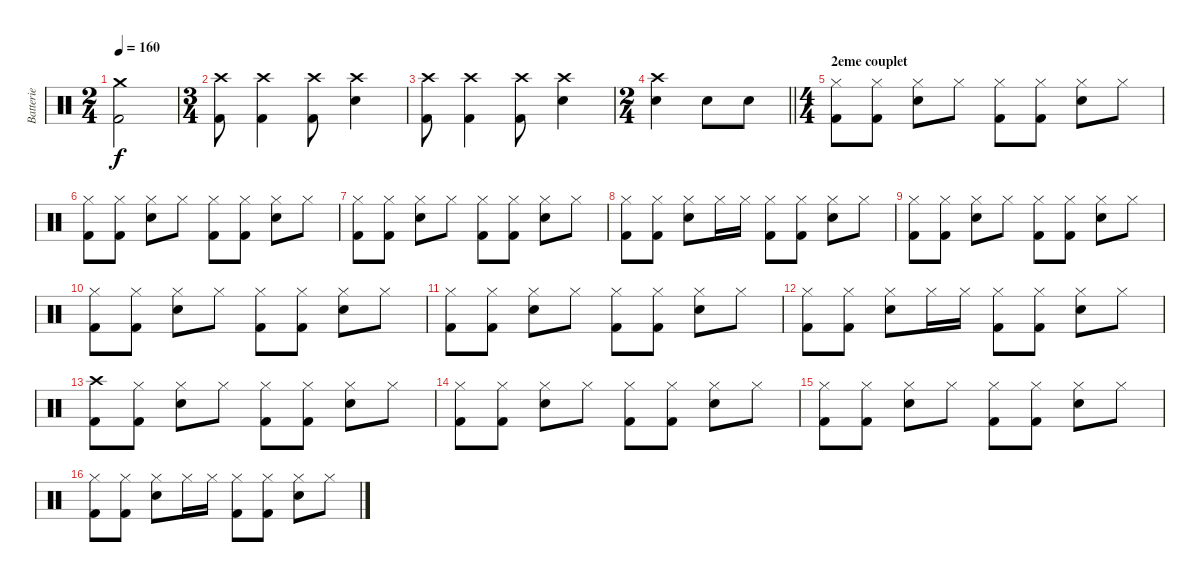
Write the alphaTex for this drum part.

\track ("Batterie" "Batterie") {instrument percussion}
\staff {score}
\articulation defaults
\ts (2 4)
\tempo 160
\clef neutral
\ks c
("Crash medium (hit)" "Kick (hit) 2").2{dy f} |
\ts (3 4)
("Crash high (hit)" "Kick (hit) 2").8 ("Crash high (hit)" "Kick (hit) 2").4 ("Crash high (hit)" "Kick (hit) 2").8 ("Crash high (hit)" "Snare (hit) 2").4 |
("Crash high (hit)" "Kick (hit) 2").8 ("Crash high (hit)" "Kick (hit) 2").4 ("Crash high (hit)" "Kick (hit) 2").8 ("Crash high (hit)" "Snare (hit) 2").4 |
\ts (2 4)
\barLineRight lightlight
("Crash high (hit)" "Snare (hit) 2").4 "Snare (hit) 2".8 "Snare (hit) 2".8 |
\ts (4 4)
\section ("" "2eme couplet")
("Hi-Hat (closed)" "Kick (hit) 2").8{volume 11} ("Hi-Hat (closed)" "Kick (hit) 2").8 ("Hi-Hat (closed)" "Electric Snare (hit)").8 "Hi-Hat (closed)".8 ("Hi-Hat (closed)" "Kick (hit) 2").8 ("Hi-Hat (closed)" "Kick (hit) 2").8 ("Hi-Hat (closed)" "Electric Snare (hit)").8 "Hi-Hat (closed)".8 |
("Hi-Hat (closed)" "Kick (hit) 2").8 ("Hi-Hat (closed)" "Kick (hit) 2").8 ("Hi-Hat (closed)" "Electric Snare (hit)").8 "Hi-Hat (closed)".8 ("Hi-Hat (closed)" "Kick (hit) 2").8 ("Hi-Hat (closed)" "Kick (hit) 2").8 ("Hi-Hat (closed)" "Electric Snare (hit)").8 "Hi-Hat (closed)".8 |
("Hi-Hat (closed)" "Kick (hit) 2").8 ("Hi-Hat (closed)" "Kick (hit) 2").8 ("Hi-Hat (closed)" "Electric Snare (hit)").8 "Hi-Hat (closed)".8 ("Hi-Hat (closed)" "Kick (hit) 2").8 ("Hi-Hat (closed)" "Kick (hit) 2").8 ("Hi-Hat (closed)" "Electric Snare (hit)").8 "Hi-Hat (closed)".8 |
("Hi-Hat (closed)" "Kick (hit) 2").8 ("Hi-Hat (closed)" "Kick (hit) 2").8 ("Hi-Hat (closed)" "Electric Snare (hit)").8 "Hi-Hat (closed)".16 "Hi-Hat (closed)".16 ("Hi-Hat (closed)" "Kick (hit) 2").8 ("Hi-Hat (closed)" "Kick (hit) 2").8 ("Hi-Hat (closed)" "Electric Snare (hit)").8 "Hi-Hat (closed)".8 |
("Hi-Hat (closed)" "Kick (hit) 2").8 ("Hi-Hat (closed)" "Kick (hit) 2").8 ("Hi-Hat (closed)" "Electric Snare (hit)").8 "Hi-Hat (closed)".8 ("Hi-Hat (closed)" "Kick (hit) 2").8 ("Hi-Hat (closed)" "Kick (hit) 2").8 ("Hi-Hat (closed)" "Electric Snare (hit)").8 "Hi-Hat (closed)".8 |
("Hi-Hat (closed)" "Kick (hit) 2").8 ("Hi-Hat (closed)" "Kick (hit) 2").8 ("Hi-Hat (closed)" "Electric Snare (hit)").8 "Hi-Hat (closed)".8 ("Hi-Hat (closed)" "Kick (hit) 2").8 ("Hi-Hat (closed)" "Kick (hit) 2").8 ("Hi-Hat (closed)" "Electric Snare (hit)").8 "Hi-Hat (closed)".8 |
("Hi-Hat (closed)" "Kick (hit) 2").8 ("Hi-Hat (closed)" "Kick (hit) 2").8 ("Hi-Hat (closed)" "Electric Snare (hit)").8 "Hi-Hat (closed)".8 ("Hi-Hat (closed)" "Kick (hit) 2").8 ("Hi-Hat (closed)" "Kick (hit) 2").8 ("Hi-Hat (closed)" "Electric Snare (hit)").8 "Hi-Hat (closed)".8 |
("Hi-Hat (closed)" "Kick (hit) 2").8 ("Hi-Hat (closed)" "Kick (hit) 2").8 ("Hi-Hat (closed)" "Electric Snare (hit)").8 "Hi-Hat (closed)".16 "Hi-Hat (closed)".16 ("Hi-Hat (closed)" "Kick (hit) 2").8 ("Hi-Hat (closed)" "Kick (hit) 2").8 ("Hi-Hat (closed)" "Electric Snare (hit)").8 "Hi-Hat (closed)".8 |
("Crash high (hit)" "Kick (hit) 2").8 ("Hi-Hat (closed)" "Kick (hit) 2").8 ("Hi-Hat (closed)" "Electric Snare (hit)").8 "Hi-Hat (closed)".8 ("Hi-Hat (closed)" "Kick (hit) 2").8 ("Hi-Hat (closed)" "Kick (hit) 2").8 ("Hi-Hat (closed)" "Electric Snare (hit)").8 "Hi-Hat (closed)".8 |
("Hi-Hat (closed)" "Kick (hit) 2").8 ("Hi-Hat (closed)" "Kick (hit) 2").8 ("Hi-Hat (closed)" "Electric Snare (hit)").8 "Hi-Hat (closed)".8 ("Hi-Hat (closed)" "Kick (hit) 2").8 ("Hi-Hat (closed)" "Kick (hit) 2").8 ("Hi-Hat (closed)" "Electric Snare (hit)").8 "Hi-Hat (closed)".8 |
("Hi-Hat (closed)" "Kick (hit) 2").8 ("Hi-Hat (closed)" "Kick (hit) 2").8 ("Hi-Hat (closed)" "Electric Snare (hit)").8 "Hi-Hat (closed)".8 ("Hi-Hat (closed)" "Kick (hit) 2").8 ("Hi-Hat (closed)" "Kick (hit) 2").8 ("Hi-Hat (closed)" "Electric Snare (hit)").8 "Hi-Hat (closed)".8 |
("Hi-Hat (closed)" "Kick (hit) 2").8 ("Hi-Hat (closed)" "Kick (hit) 2").8 ("Hi-Hat (closed)" "Electric Snare (hit)").8 "Hi-Hat (closed)".16 "Hi-Hat (closed)".16 ("Hi-Hat (closed)" "Kick (hit) 2").8 ("Hi-Hat (closed)" "Kick (hit) 2").8 ("Hi-Hat (closed)" "Electric Snare (hit)").8 "Hi-Hat (closed)".8
